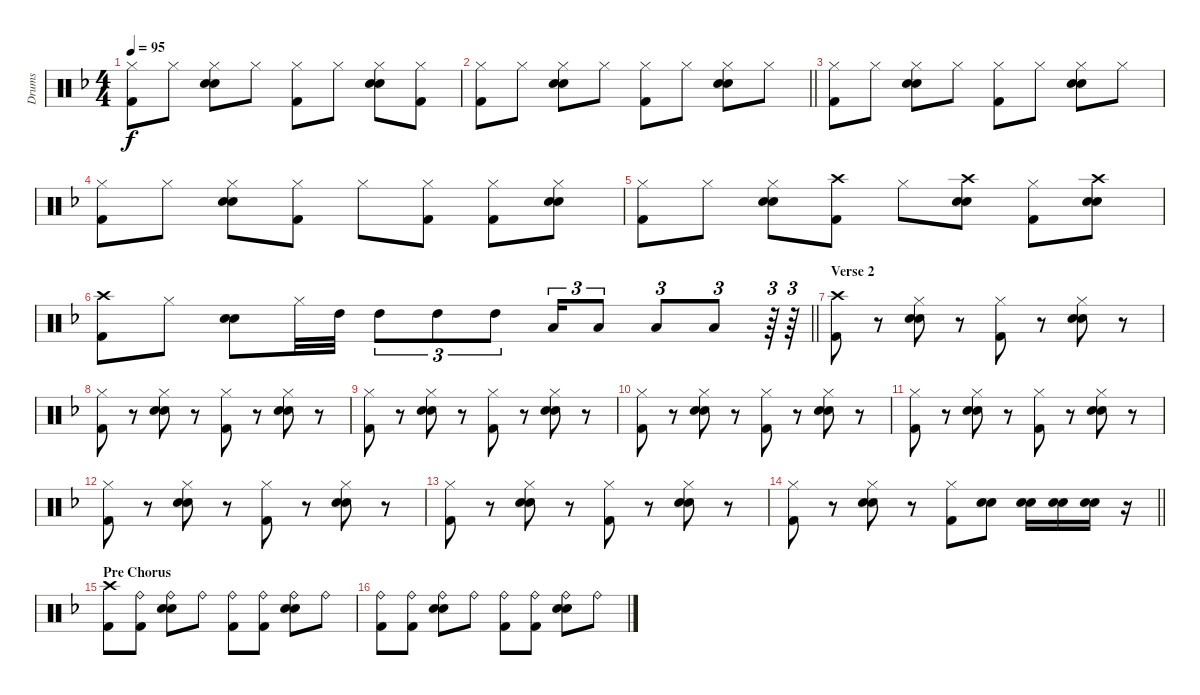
\track ("Drums" "Drums") {instrument percussion}
\staff {score}
\articulation defaults
\ts (4 4)
\tempo 95
\clef neutral
\ks dminor
("Hi-Hat (closed)" "Kick (hit) 2").8{dy f} "Hi-Hat (closed)".8 ("Hi-Hat (closed)" "Snare (hit) 2" "Electric Snare (hit)").8 "Hi-Hat (closed)".8 ("Hi-Hat (closed)" "Kick (hit) 2").8 "Hi-Hat (closed)".8 ("Hi-Hat (closed)" "Snare (hit) 2" "Electric Snare (hit)").8 ("Hi-Hat (closed)" "Kick (hit) 2").8 |
\barLineRight lightlight
("Hi-Hat (closed)" "Kick (hit) 2").8 "Hi-Hat (closed)".8 ("Hi-Hat (closed)" "Snare (hit) 2" "Electric Snare (hit)").8 "Hi-Hat (closed)".8 ("Hi-Hat (closed)" "Kick (hit) 2").8 "Hi-Hat (closed)".8 ("Hi-Hat (closed)" "Snare (hit) 2" "Electric Snare (hit)").8 "Hi-Hat (closed)".8 |
("Hi-Hat (closed)" "Kick (hit) 2").8 "Hi-Hat (closed)".8 ("Hi-Hat (closed)" "Snare (hit) 2" "Electric Snare (hit)").8 "Hi-Hat (closed)".8 ("Hi-Hat (closed)" "Kick (hit) 2").8 "Hi-Hat (closed)".8 ("Hi-Hat (closed)" "Snare (hit) 2" "Electric Snare (hit)").8 "Hi-Hat (closed)".8 |
("Hi-Hat (closed)" "Kick (hit) 2").8 "Hi-Hat (closed)".8 ("Hi-Hat (closed)" "Snare (hit) 2" "Electric Snare (hit)").8 ("Hi-Hat (closed)" "Kick (hit) 2").8 "Hi-Hat (closed)".8 ("Hi-Hat (closed)" "Kick (hit) 2").8 ("Hi-Hat (closed)" "Kick (hit) 2").8 ("Hi-Hat (closed)" "Snare (hit) 2" "Electric Snare (hit)").8 |
("Hi-Hat (closed)" "Kick (hit) 2").8 "Hi-Hat (closed)".8 ("Hi-Hat (closed)" "Snare (hit) 2" "Electric Snare (hit)").8 ("Crash high (hit)" "Kick (hit) 2").8 "Hi-Hat (closed)".8 ("Crash high (hit)" "Snare (hit) 2" "Electric Snare (hit)").8 ("Hi-Hat (closed)" "Kick (hit) 2").8 ("Crash high (hit)" "Snare (hit) 2" "Electric Snare (hit)").8 |
\barLineRight lightlight
("Crash high (hit)" "Kick (hit) 2").8 "Hi-Hat (closed)".8 ("Snare (hit) 2" "Electric Snare (hit)").8 "Hi-Hat (closed)".32 "High Tom (hit)".32 "High Tom (hit)".8{tu (3 2)} "High Tom (hit)".8{tu (3 2)} "High Tom (hit)".8{tu (3 2)} "Low Tom (hit)".16{tu (3 2)} "Low Tom (hit)".8{tu (3 2)} "Low Tom (hit)".8{tu (3 2)} "Low Tom (hit)".8{tu (3 2)} r.64{tu (3 2)} r.64{tu (3 2)} |
\section ("" "Verse 2")
("Crash high (hit)" "Kick (hit) 2").8 r.8 ("Hi-Hat (closed)" "Snare (hit) 2" "Electric Snare (hit)").8 r.8 ("Hi-Hat (closed)" "Kick (hit) 2").8 r.8 ("Hi-Hat (closed)" "Snare (hit) 2" "Electric Snare (hit)").8 r.8 |
("Hi-Hat (closed)" "Kick (hit) 2").8 r.8 ("Hi-Hat (closed)" "Snare (hit) 2" "Electric Snare (hit)").8 r.8 ("Hi-Hat (closed)" "Kick (hit) 2").8 r.8 ("Hi-Hat (closed)" "Snare (hit) 2" "Electric Snare (hit)").8 r.8 |
("Hi-Hat (closed)" "Kick (hit) 2").8 r.8 ("Hi-Hat (closed)" "Snare (hit) 2" "Electric Snare (hit)").8 r.8 ("Hi-Hat (closed)" "Kick (hit) 2").8 r.8 ("Hi-Hat (closed)" "Snare (hit) 2" "Electric Snare (hit)").8 r.8 |
("Hi-Hat (closed)" "Kick (hit) 2").8 r.8 ("Hi-Hat (closed)" "Snare (hit) 2" "Electric Snare (hit)").8 r.8 ("Hi-Hat (closed)" "Kick (hit) 2").8 r.8 ("Hi-Hat (closed)" "Snare (hit) 2" "Electric Snare (hit)").8 r.8 |
("Hi-Hat (closed)" "Kick (hit) 2").8 r.8 ("Hi-Hat (closed)" "Snare (hit) 2" "Electric Snare (hit)").8 r.8 ("Hi-Hat (closed)" "Kick (hit) 2").8 r.8 ("Hi-Hat (closed)" "Snare (hit) 2" "Electric Snare (hit)").8 r.8 |
("Hi-Hat (closed)" "Kick (hit) 2").8 r.8 ("Hi-Hat (closed)" "Snare (hit) 2" "Electric Snare (hit)").8 r.8 ("Hi-Hat (closed)" "Kick (hit) 2").8 r.8 ("Hi-Hat (closed)" "Snare (hit) 2" "Electric Snare (hit)").8 r.8 |
("Hi-Hat (closed)" "Kick (hit) 2").8 r.8 ("Hi-Hat (closed)" "Snare (hit) 2" "Electric Snare (hit)").8 r.8 ("Hi-Hat (closed)" "Kick (hit) 2").8 r.8 ("Hi-Hat (closed)" "Snare (hit) 2" "Electric Snare (hit)").8 r.8 |
\barLineRight lightlight
("Hi-Hat (closed)" "Kick (hit) 2").8 r.8 ("Hi-Hat (closed)" "Snare (hit) 2" "Electric Snare (hit)").8 r.8 ("Hi-Hat (closed)" "Kick (hit) 2").8 ("Snare (hit) 2" "Electric Snare (hit)").8 ("Snare (hit) 2" "Electric Snare (hit)").16 ("Snare (hit) 2" "Electric Snare (hit)").16 ("Snare (hit) 2" "Electric Snare (hit)").16 r.16 |
\section ("" "Pre Chorus")
("Crash high (hit)" "Kick (hit) 2").8 ("Ride (bell)" "Kick (hit) 2").8 ("Ride (bell)" "Snare (hit) 2" "Electric Snare (hit)").8 "Ride (bell)".8 ("Ride (bell)" "Kick (hit) 2").8 ("Ride (bell)" "Kick (hit) 2").8 ("Ride (bell)" "Snare (hit) 2" "Electric Snare (hit)").8 "Ride (bell)".8 |
("Ride (bell)" "Kick (hit) 2").8 ("Ride (bell)" "Kick (hit) 2").8 ("Ride (bell)" "Snare (hit) 2" "Electric Snare (hit)").8 "Ride (bell)".8 ("Ride (bell)" "Kick (hit) 2").8 ("Ride (bell)" "Kick (hit) 2").8 ("Ride (bell)" "Snare (hit) 2" "Electric Snare (hit)").8 "Ride (bell)".8
